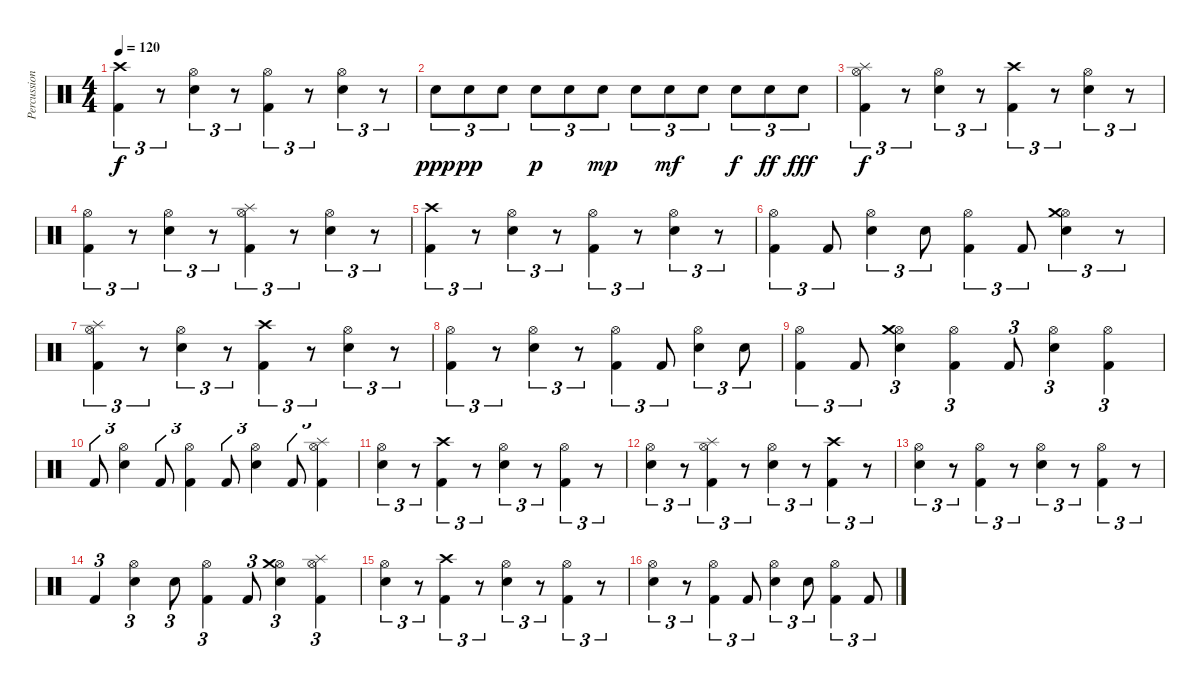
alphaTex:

\track ("Percussioni" "Percussion") {instrument percussion}
\staff {score}
\articulation defaults
\ts (4 4)
\tempo 120
\clef neutral
\ks c
("Kick (hit) 2" "Crash high (hit)").4{tu (3 2) dy f} r.8{tu (3 2)} ("Electric Snare (hit)" "Hi-Hat (open)").4{tu (3 2)} r.8{tu (3 2)} ("Kick (hit) 2" "Hi-Hat (open)").4{tu (3 2)} r.8{tu (3 2)} ("Electric Snare (hit)" "Hi-Hat (open)").4{tu (3 2)} r.8{tu (3 2)} |
"Electric Snare (hit)".8{tu (3 2) dy ppp} "Electric Snare (hit)".8{tu (3 2) dy pp} "Electric Snare (hit)".8{tu (3 2)} "Electric Snare (hit)".8{tu (3 2) dy p} "Electric Snare (hit)".8{tu (3 2)} "Electric Snare (hit)".8{tu (3 2) dy mp} "Electric Snare (hit)".8{tu (3 2)} "Electric Snare (hit)".8{tu (3 2) dy mf} "Electric Snare (hit)".8{tu (3 2)} "Electric Snare (hit)".8{tu (3 2) dy f} "Electric Snare (hit)".8{tu (3 2) dy ff} "Electric Snare (hit)".8{tu (3 2) dy fff} |
("Kick (hit) 2" "Hi-Hat (open)" "Splash (hit)").4{tu (3 2) dy f} r.8{tu (3 2)} ("Electric Snare (hit)" "Hi-Hat (open)").4{tu (3 2)} r.8{tu (3 2)} ("Kick (hit) 2" "Crash high (hit)").4{tu (3 2)} r.8{tu (3 2)} ("Electric Snare (hit)" "Hi-Hat (open)").4{tu (3 2)} r.8{tu (3 2)} |
("Kick (hit) 2" "Hi-Hat (open)").4{tu (3 2)} r.8{tu (3 2)} ("Electric Snare (hit)" "Hi-Hat (open)").4{tu (3 2)} r.8{tu (3 2)} ("Kick (hit) 2" "Hi-Hat (open)" "Splash (hit)").4{tu (3 2)} r.8{tu (3 2)} ("Electric Snare (hit)" "Hi-Hat (open)").4{tu (3 2)} r.8{tu (3 2)} |
("Kick (hit) 2" "Crash high (hit)").4{tu (3 2)} r.8{tu (3 2)} ("Electric Snare (hit)" "Hi-Hat (open)").4{tu (3 2)} r.8{tu (3 2)} ("Kick (hit) 2" "Hi-Hat (open)").4{tu (3 2)} r.8{tu (3 2)} ("Electric Snare (hit)" "Hi-Hat (open)").4{tu (3 2)} r.8{tu (3 2)} |
("Kick (hit) 2" "Hi-Hat (open)").4{tu (3 2)} "Kick (hit) 2".8{tu (3 2)} ("Electric Snare (hit)" "Hi-Hat (open)").4{tu (3 2)} "Electric Snare (hit)".8{tu (3 2)} ("Kick (hit) 2" "Hi-Hat (open)").4{tu (3 2)} "Kick (hit) 2".8{tu (3 2)} ("Electric Snare (hit)" "Hi-Hat (open)" "Crash medium (hit)").4{tu (3 2)} r.8{tu (3 2)} |
("Kick (hit) 2" "Hi-Hat (open)" "Splash (hit)").4{tu (3 2)} r.8{tu (3 2)} ("Electric Snare (hit)" "Hi-Hat (open)").4{tu (3 2)} r.8{tu (3 2)} ("Kick (hit) 2" "Crash high (hit)").4{tu (3 2)} r.8{tu (3 2)} ("Electric Snare (hit)" "Hi-Hat (open)").4{tu (3 2)} r.8{tu (3 2)} |
("Kick (hit) 2" "Hi-Hat (open)").4{tu (3 2)} r.8{tu (3 2)} ("Electric Snare (hit)" "Hi-Hat (open)").4{tu (3 2)} r.8{tu (3 2)} ("Kick (hit) 2" "Hi-Hat (open)").4{tu (3 2)} "Kick (hit) 2".8{tu (3 2)} ("Electric Snare (hit)" "Hi-Hat (open)").4{tu (3 2)} "Electric Snare (hit)".8{tu (3 2)} |
("Kick (hit) 2" "Hi-Hat (open)").4{tu (3 2)} "Kick (hit) 2".8{tu (3 2)} ("Electric Snare (hit)" "Hi-Hat (open)" "Crash medium (hit)").4{tu (3 2)} ("Kick (hit) 2" "Hi-Hat (open)").4{tu (3 2)} "Kick (hit) 2".8{tu (3 2)} ("Electric Snare (hit)" "Hi-Hat (open)").4{tu (3 2)} ("Kick (hit) 2" "Hi-Hat (open)").4{tu (3 2)} |
"Kick (hit) 2".8{tu (3 2)} ("Electric Snare (hit)" "Hi-Hat (open)").4{tu (3 2)} "Kick (hit) 2".8{tu (3 2)} ("Kick (hit) 2" "Hi-Hat (open)").4{tu (3 2)} "Kick (hit) 2".8{tu (3 2)} ("Electric Snare (hit)" "Hi-Hat (open)").4{tu (3 2)} "Kick (hit) 2".8{tu (3 2)} ("Kick (hit) 2" "Hi-Hat (open)" "Splash (hit)").4{tu (3 2)} |
("Electric Snare (hit)" "Hi-Hat (open)").4{tu (3 2)} r.8{tu (3 2)} ("Kick (hit) 2" "Crash high (hit)").4{tu (3 2)} r.8{tu (3 2)} ("Electric Snare (hit)" "Hi-Hat (open)").4{tu (3 2)} r.8{tu (3 2)} ("Kick (hit) 2" "Hi-Hat (open)").4{tu (3 2)} r.8{tu (3 2)} |
("Electric Snare (hit)" "Hi-Hat (open)").4{tu (3 2)} r.8{tu (3 2)} ("Kick (hit) 2" "Hi-Hat (open)" "Splash (hit)").4{tu (3 2)} r.8{tu (3 2)} ("Electric Snare (hit)" "Hi-Hat (open)").4{tu (3 2)} r.8{tu (3 2)} ("Kick (hit) 2" "Crash high (hit)").4{tu (3 2)} r.8{tu (3 2)} |
("Electric Snare (hit)" "Hi-Hat (open)").4{tu (3 2)} r.8{tu (3 2)} ("Kick (hit) 2" "Hi-Hat (open)").4{tu (3 2)} r.8{tu (3 2)} ("Electric Snare (hit)" "Hi-Hat (open)").4{tu (3 2)} r.8{tu (3 2)} ("Kick (hit) 2" "Hi-Hat (open)").4{tu (3 2)} r.8{tu (3 2)} |
"Kick (hit) 2".4{tu (3 2)} ("Electric Snare (hit)" "Hi-Hat (open)").4{tu (3 2)} "Electric Snare (hit)".8{tu (3 2)} ("Kick (hit) 2" "Hi-Hat (open)").4{tu (3 2)} "Kick (hit) 2".8{tu (3 2)} ("Electric Snare (hit)" "Hi-Hat (open)" "Crash medium (hit)").4{tu (3 2)} ("Kick (hit) 2" "Hi-Hat (open)" "Splash (hit)").4{tu (3 2)} |
("Electric Snare (hit)" "Hi-Hat (open)").4{tu (3 2)} r.8{tu (3 2)} ("Kick (hit) 2" "Crash high (hit)").4{tu (3 2)} r.8{tu (3 2)} ("Electric Snare (hit)" "Hi-Hat (open)").4{tu (3 2)} r.8{tu (3 2)} ("Kick (hit) 2" "Hi-Hat (open)").4{tu (3 2)} r.8{tu (3 2)} |
("Electric Snare (hit)" "Hi-Hat (open)").4{tu (3 2)} r.8{tu (3 2)} ("Kick (hit) 2" "Hi-Hat (open)").4{tu (3 2)} "Kick (hit) 2".8{tu (3 2)} ("Electric Snare (hit)" "Hi-Hat (open)").4{tu (3 2)} "Electric Snare (hit)".8{tu (3 2)} ("Kick (hit) 2" "Hi-Hat (open)").4{tu (3 2)} "Kick (hit) 2".8{tu (3 2)}
